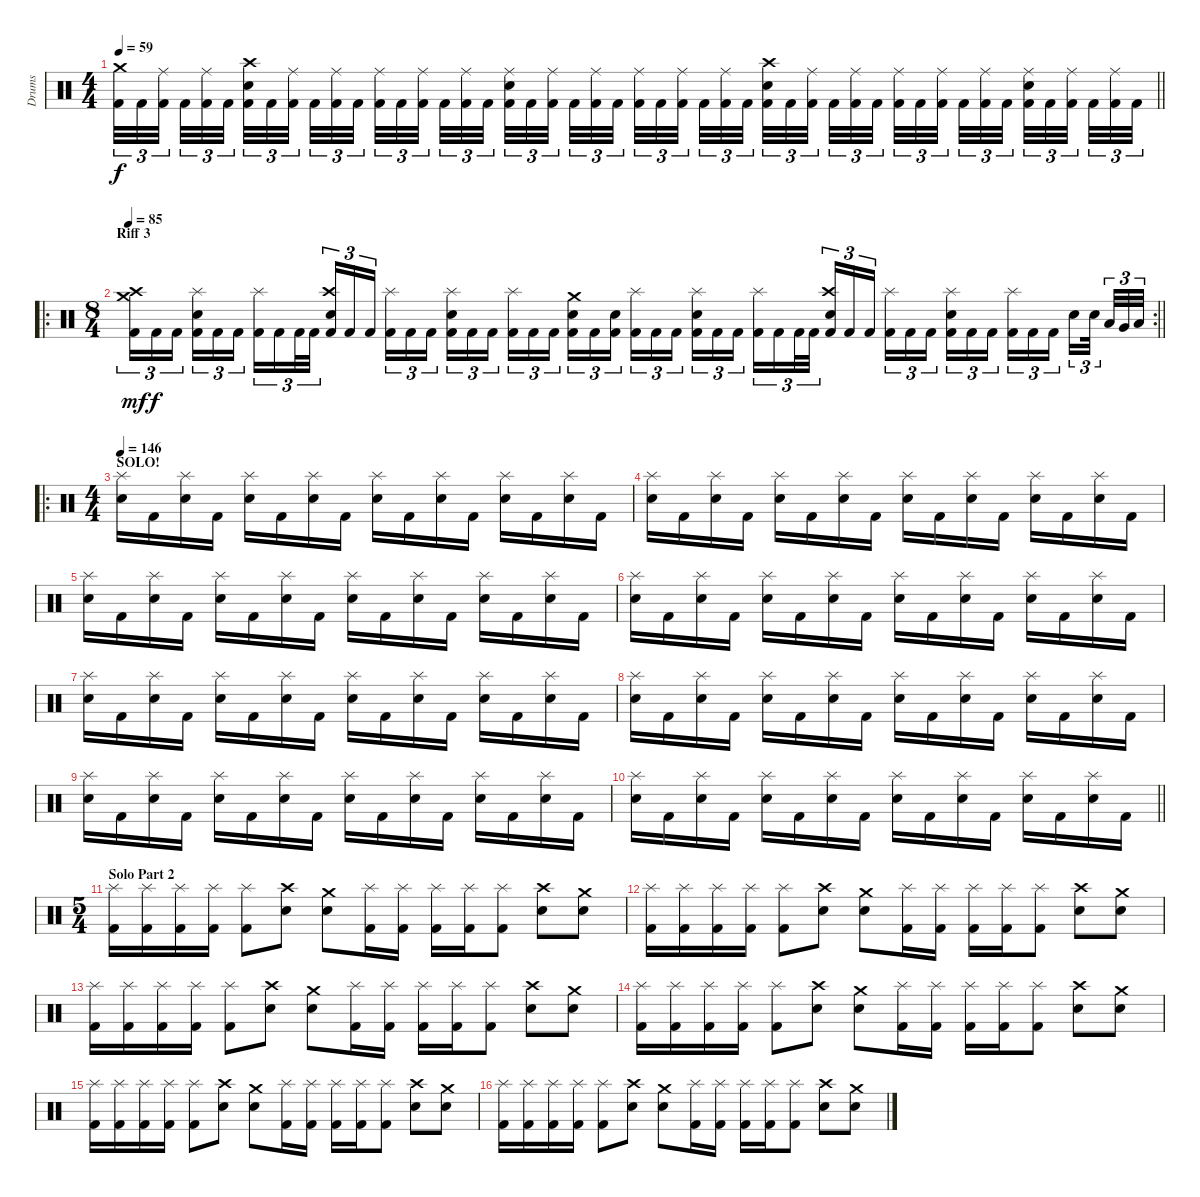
\track ("Drums" "Drums") {instrument percussion}
\staff {score}
\articulation defaults
\ts (4 4)
\tempo 59
\clef neutral
\barLineRight lightlight
\ks c
("Crash medium (hit)" "Kick (hit) 2").32{tu (3 2) dy f} "Kick (hit) 2".32{tu (3 2)} ("Ride (middle)" "Kick (hit) 2").32{tu (3 2) beam splitsecondary} "Kick (hit) 2".32{tu (3 2)} ("Ride (middle)" "Kick (hit) 2").32{tu (3 2)} "Kick (hit) 2".32{tu (3 2) beam splitsecondary} ("Crash high (hit)" "Snare (hit) 2" "Kick (hit) 2").32{tu (3 2)} "Kick (hit) 2".32{tu (3 2)} ("Ride (middle)" "Kick (hit) 2").32{tu (3 2) beam splitsecondary} "Kick (hit) 2".32{tu (3 2)} ("Ride (middle)" "Kick (hit) 2").32{tu (3 2)} "Kick (hit) 2".32{tu (3 2)} ("Ride (middle)" "Kick (hit) 2").32{tu (3 2)} "Kick (hit) 2".32{tu (3 2)} ("Ride (middle)" "Kick (hit) 2").32{tu (3 2) beam splitsecondary} "Kick (hit) 2".32{tu (3 2)} ("Ride (middle)" "Kick (hit) 2").32{tu (3 2)} "Kick (hit) 2".32{tu (3 2) beam splitsecondary} ("Ride (middle)" "Snare (hit) 2" "Kick (hit) 2").32{tu (3 2)} "Kick (hit) 2".32{tu (3 2)} ("Ride (middle)" "Kick (hit) 2").32{tu (3 2) beam splitsecondary} "Kick (hit) 2".32{tu (3 2)} ("Ride (middle)" "Kick (hit) 2").32{tu (3 2)} "Kick (hit) 2".32{tu (3 2)} ("Ride (middle)" "Kick (hit) 2").32{tu (3 2)} "Kick (hit) 2".32{tu (3 2)} ("Ride (middle)" "Kick (hit) 2").32{tu (3 2) beam splitsecondary} "Kick (hit) 2".32{tu (3 2)} ("Ride (middle)" "Kick (hit) 2").32{tu (3 2)} "Kick (hit) 2".32{tu (3 2) beam splitsecondary} ("Crash high (hit)" "Snare (hit) 2" "Kick (hit) 2").32{tu (3 2)} "Kick (hit) 2".32{tu (3 2)} ("Ride (middle)" "Kick (hit) 2").32{tu (3 2) beam splitsecondary} "Kick (hit) 2".32{tu (3 2)} ("Ride (middle)" "Kick (hit) 2").32{tu (3 2)} "Kick (hit) 2".32{tu (3 2)} ("Ride (middle)" "Kick (hit) 2").32{tu (3 2)} "Kick (hit) 2".32{tu (3 2)} ("Ride (middle)" "Kick (hit) 2").32{tu (3 2) beam splitsecondary} "Kick (hit) 2".32{tu (3 2)} ("Ride (middle)" "Kick (hit) 2").32{tu (3 2)} "Kick (hit) 2".32{tu (3 2) beam splitsecondary} ("Ride (middle)" "Snare (hit) 2" "Kick (hit) 2").32{tu (3 2)} "Kick (hit) 2".32{tu (3 2)} ("Ride (middle)" "Kick (hit) 2").32{tu (3 2) beam splitsecondary} "Kick (hit) 2".32{tu (3 2)} ("Ride (middle)" "Kick (hit) 2").32{tu (3 2)} "Kick (hit) 2".32{tu (3 2)} |
\ro
\rc 2
\ts (8 4)
\section ("" "Riff 3")
\tempo 85
\barLineRight lightlight
("Crash medium (hit)" "Crash high (hit)" "Kick (hit) 2").16{tu (3 2) dy mf} "Kick (hit) 2".16{tu (3 2) dy f} "Kick (hit) 2".16{tu (3 2) beam splitsecondary} ("Splash (hit)" "Snare (hit) 2" "Kick (hit) 2").16{tu (3 2)} "Kick (hit) 2".16{tu (3 2)} "Kick (hit) 2".16{tu (3 2)} ("Splash (hit)" "Kick (hit) 2").16{tu (3 2)} "Kick (hit) 2".16{tu (3 2)} "Kick (hit) 2".32{tu (3 2)} "Kick (hit) 2".32{tu (3 2) beam splitsecondary} ("Crash high (hit)" "Snare (hit) 2" "Kick (hit) 2").16{tu (3 2)} "Kick (hit) 2".16{tu (3 2)} "Kick (hit) 2".16{tu (3 2)} ("Splash (hit)" "Kick (hit) 2").16{tu (3 2)} "Kick (hit) 2".16{tu (3 2)} "Kick (hit) 2".16{tu (3 2) beam splitsecondary} ("Splash (hit)" "Snare (hit) 2" "Kick (hit) 2").16{tu (3 2)} "Kick (hit) 2".16{tu (3 2)} "Kick (hit) 2".16{tu (3 2)} ("Splash (hit)" "Kick (hit) 2").16{tu (3 2)} "Kick (hit) 2".16{tu (3 2)} "Kick (hit) 2".16{tu (3 2) beam splitsecondary} ("Crash medium (hit)" "Snare (hit) 2" "Kick (hit) 2").16{tu (3 2)} "Kick (hit) 2".16{tu (3 2)} ("Snare (hit) 2" "Kick (hit) 2").16{tu (3 2)} ("Splash (hit)" "Kick (hit) 2").16{tu (3 2)} "Kick (hit) 2".16{tu (3 2)} "Kick (hit) 2".16{tu (3 2) beam splitsecondary} ("Splash (hit)" "Snare (hit) 2" "Kick (hit) 2").16{tu (3 2)} "Kick (hit) 2".16{tu (3 2)} "Kick (hit) 2".16{tu (3 2)} ("Splash (hit)" "Kick (hit) 2").16{tu (3 2)} "Kick (hit) 2".16{tu (3 2)} "Kick (hit) 2".32{tu (3 2)} "Kick (hit) 2".32{tu (3 2) beam splitsecondary} ("Crash high (hit)" "Snare (hit) 2" "Kick (hit) 2").16{tu (3 2)} "Kick (hit) 2".16{tu (3 2)} "Kick (hit) 2".16{tu (3 2)} ("Splash (hit)" "Kick (hit) 2").16{tu (3 2)} "Kick (hit) 2".16{tu (3 2)} "Kick (hit) 2".16{tu (3 2) beam splitsecondary} ("Splash (hit)" "Snare (hit) 2" "Kick (hit) 2").16{tu (3 2)} "Kick (hit) 2".16{tu (3 2)} "Kick (hit) 2".16{tu (3 2)} ("Splash (hit)" "Kick (hit) 2").16{tu (3 2)} "Kick (hit) 2".16{tu (3 2)} "Kick (hit) 2".16{tu (3 2) beam splitsecondary} "Snare (hit) 2".16{tu (3 2)} "Snare (hit) 2".32{tu (3 2) beam splitsecondary} "Low Tom (hit)".32{tu (3 2)} "Very Low Tom (hit)".32{tu (3 2)} "Low Floor Tom (hit)".32{tu (3 2)} |
\ro
\ts (4 4)
\section ("" "SOLO!")
\tempo 146
("Splash (hit)" "Snare (hit) 2").16 "Kick (hit) 2".16 ("Splash (hit)" "Snare (hit) 2").16 "Kick (hit) 2".16 ("Splash (hit)" "Snare (hit) 2").16 "Kick (hit) 2".16 ("Splash (hit)" "Snare (hit) 2").16 "Kick (hit) 2".16 ("Splash (hit)" "Snare (hit) 2").16 "Kick (hit) 2".16 ("Splash (hit)" "Snare (hit) 2").16 "Kick (hit) 2".16 ("Splash (hit)" "Snare (hit) 2").16 "Kick (hit) 2".16 ("Splash (hit)" "Snare (hit) 2").16 "Kick (hit) 2".16 |
("Splash (hit)" "Snare (hit) 2").16 "Kick (hit) 2".16 ("Splash (hit)" "Snare (hit) 2").16 "Kick (hit) 2".16 ("Splash (hit)" "Snare (hit) 2").16 "Kick (hit) 2".16 ("Splash (hit)" "Snare (hit) 2").16 "Kick (hit) 2".16 ("Splash (hit)" "Snare (hit) 2").16 "Kick (hit) 2".16 ("Splash (hit)" "Snare (hit) 2").16 "Kick (hit) 2".16 ("Splash (hit)" "Snare (hit) 2").16 "Kick (hit) 2".16 ("Splash (hit)" "Snare (hit) 2").16 "Kick (hit) 2".16 |
("Splash (hit)" "Snare (hit) 2").16 "Kick (hit) 2".16 ("Splash (hit)" "Snare (hit) 2").16 "Kick (hit) 2".16 ("Splash (hit)" "Snare (hit) 2").16 "Kick (hit) 2".16 ("Splash (hit)" "Snare (hit) 2").16 "Kick (hit) 2".16 ("Splash (hit)" "Snare (hit) 2").16 "Kick (hit) 2".16 ("Splash (hit)" "Snare (hit) 2").16 "Kick (hit) 2".16 ("Splash (hit)" "Snare (hit) 2").16 "Kick (hit) 2".16 ("Splash (hit)" "Snare (hit) 2").16 "Kick (hit) 2".16 |
("Splash (hit)" "Snare (hit) 2").16 "Kick (hit) 2".16 ("Splash (hit)" "Snare (hit) 2").16 "Kick (hit) 2".16 ("Splash (hit)" "Snare (hit) 2").16 "Kick (hit) 2".16 ("Splash (hit)" "Snare (hit) 2").16 "Kick (hit) 2".16 ("Splash (hit)" "Snare (hit) 2").16 "Kick (hit) 2".16 ("Splash (hit)" "Snare (hit) 2").16 "Kick (hit) 2".16 ("Splash (hit)" "Snare (hit) 2").16 "Kick (hit) 2".16 ("Splash (hit)" "Snare (hit) 2").16 "Kick (hit) 2".16 |
("Splash (hit)" "Snare (hit) 2").16 "Kick (hit) 2".16 ("Splash (hit)" "Snare (hit) 2").16 "Kick (hit) 2".16 ("Splash (hit)" "Snare (hit) 2").16 "Kick (hit) 2".16 ("Splash (hit)" "Snare (hit) 2").16 "Kick (hit) 2".16 ("Splash (hit)" "Snare (hit) 2").16 "Kick (hit) 2".16 ("Splash (hit)" "Snare (hit) 2").16 "Kick (hit) 2".16 ("Splash (hit)" "Snare (hit) 2").16 "Kick (hit) 2".16 ("Splash (hit)" "Snare (hit) 2").16 "Kick (hit) 2".16 |
("Splash (hit)" "Snare (hit) 2").16 "Kick (hit) 2".16 ("Splash (hit)" "Snare (hit) 2").16 "Kick (hit) 2".16 ("Splash (hit)" "Snare (hit) 2").16 "Kick (hit) 2".16 ("Splash (hit)" "Snare (hit) 2").16 "Kick (hit) 2".16 ("Splash (hit)" "Snare (hit) 2").16 "Kick (hit) 2".16 ("Splash (hit)" "Snare (hit) 2").16 "Kick (hit) 2".16 ("Splash (hit)" "Snare (hit) 2").16 "Kick (hit) 2".16 ("Splash (hit)" "Snare (hit) 2").16 "Kick (hit) 2".16 |
("Splash (hit)" "Snare (hit) 2").16 "Kick (hit) 2".16 ("Splash (hit)" "Snare (hit) 2").16 "Kick (hit) 2".16 ("Splash (hit)" "Snare (hit) 2").16 "Kick (hit) 2".16 ("Splash (hit)" "Snare (hit) 2").16 "Kick (hit) 2".16 ("Splash (hit)" "Snare (hit) 2").16 "Kick (hit) 2".16 ("Splash (hit)" "Snare (hit) 2").16 "Kick (hit) 2".16 ("Splash (hit)" "Snare (hit) 2").16 "Kick (hit) 2".16 ("Splash (hit)" "Snare (hit) 2").16 "Kick (hit) 2".16 |
\barLineRight lightlight
("Splash (hit)" "Snare (hit) 2").16 "Kick (hit) 2".16 ("Splash (hit)" "Snare (hit) 2").16 "Kick (hit) 2".16 ("Splash (hit)" "Snare (hit) 2").16 "Kick (hit) 2".16 ("Splash (hit)" "Snare (hit) 2").16 "Kick (hit) 2".16 ("Splash (hit)" "Snare (hit) 2").16 "Kick (hit) 2".16 ("Splash (hit)" "Snare (hit) 2").16 "Kick (hit) 2".16 ("Splash (hit)" "Snare (hit) 2").16 "Kick (hit) 2".16 ("Splash (hit)" "Snare (hit) 2").16 "Kick (hit) 2".16 |
\ts (5 4)
\section ("" "Solo Part 2")
("Splash (hit)" "Kick (hit) 2").16 ("Splash (hit)" "Kick (hit) 2").16 ("Splash (hit)" "Kick (hit) 2").16 ("Splash (hit)" "Kick (hit) 2").16 ("Splash (hit)" "Kick (hit) 2").8 ("Crash high (hit)" "Snare (hit) 2").8 ("Crash medium (hit)" "Snare (hit) 2").8 ("Splash (hit)" "Kick (hit) 2").16 ("Splash (hit)" "Kick (hit) 2").16 ("Splash (hit)" "Kick (hit) 2").16 ("Splash (hit)" "Kick (hit) 2").16 ("Splash (hit)" "Kick (hit) 2").8 ("Crash high (hit)" "Snare (hit) 2").8 ("Crash medium (hit)" "Snare (hit) 2").8 |
("Splash (hit)" "Kick (hit) 2").16 ("Splash (hit)" "Kick (hit) 2").16 ("Splash (hit)" "Kick (hit) 2").16 ("Splash (hit)" "Kick (hit) 2").16 ("Splash (hit)" "Kick (hit) 2").8 ("Crash high (hit)" "Snare (hit) 2").8 ("Crash medium (hit)" "Snare (hit) 2").8 ("Splash (hit)" "Kick (hit) 2").16 ("Splash (hit)" "Kick (hit) 2").16 ("Splash (hit)" "Kick (hit) 2").16 ("Splash (hit)" "Kick (hit) 2").16 ("Splash (hit)" "Kick (hit) 2").8 ("Crash high (hit)" "Snare (hit) 2").8 ("Crash medium (hit)" "Snare (hit) 2").8 |
("Splash (hit)" "Kick (hit) 2").16 ("Splash (hit)" "Kick (hit) 2").16 ("Splash (hit)" "Kick (hit) 2").16 ("Splash (hit)" "Kick (hit) 2").16 ("Splash (hit)" "Kick (hit) 2").8 ("Crash high (hit)" "Snare (hit) 2").8 ("Crash medium (hit)" "Snare (hit) 2").8 ("Splash (hit)" "Kick (hit) 2").16 ("Splash (hit)" "Kick (hit) 2").16 ("Splash (hit)" "Kick (hit) 2").16 ("Splash (hit)" "Kick (hit) 2").16 ("Splash (hit)" "Kick (hit) 2").8 ("Crash high (hit)" "Snare (hit) 2").8 ("Crash medium (hit)" "Snare (hit) 2").8 |
("Splash (hit)" "Kick (hit) 2").16 ("Splash (hit)" "Kick (hit) 2").16 ("Splash (hit)" "Kick (hit) 2").16 ("Splash (hit)" "Kick (hit) 2").16 ("Splash (hit)" "Kick (hit) 2").8 ("Crash high (hit)" "Snare (hit) 2").8 ("Crash medium (hit)" "Snare (hit) 2").8 ("Splash (hit)" "Kick (hit) 2").16 ("Splash (hit)" "Kick (hit) 2").16 ("Splash (hit)" "Kick (hit) 2").16 ("Splash (hit)" "Kick (hit) 2").16 ("Splash (hit)" "Kick (hit) 2").8 ("Crash high (hit)" "Snare (hit) 2").8 ("Crash medium (hit)" "Snare (hit) 2").8 |
("Splash (hit)" "Kick (hit) 2").16 ("Splash (hit)" "Kick (hit) 2").16 ("Splash (hit)" "Kick (hit) 2").16 ("Splash (hit)" "Kick (hit) 2").16 ("Splash (hit)" "Kick (hit) 2").8 ("Crash high (hit)" "Snare (hit) 2").8 ("Crash medium (hit)" "Snare (hit) 2").8 ("Splash (hit)" "Kick (hit) 2").16 ("Splash (hit)" "Kick (hit) 2").16 ("Splash (hit)" "Kick (hit) 2").16 ("Splash (hit)" "Kick (hit) 2").16 ("Splash (hit)" "Kick (hit) 2").8 ("Crash high (hit)" "Snare (hit) 2").8 ("Crash medium (hit)" "Snare (hit) 2").8 |
("Splash (hit)" "Kick (hit) 2").16 ("Splash (hit)" "Kick (hit) 2").16 ("Splash (hit)" "Kick (hit) 2").16 ("Splash (hit)" "Kick (hit) 2").16 ("Splash (hit)" "Kick (hit) 2").8 ("Crash high (hit)" "Snare (hit) 2").8 ("Crash medium (hit)" "Snare (hit) 2").8 ("Splash (hit)" "Kick (hit) 2").16 ("Splash (hit)" "Kick (hit) 2").16 ("Splash (hit)" "Kick (hit) 2").16 ("Splash (hit)" "Kick (hit) 2").16 ("Splash (hit)" "Kick (hit) 2").8 ("Crash high (hit)" "Snare (hit) 2").8 ("Crash medium (hit)" "Snare (hit) 2").8
